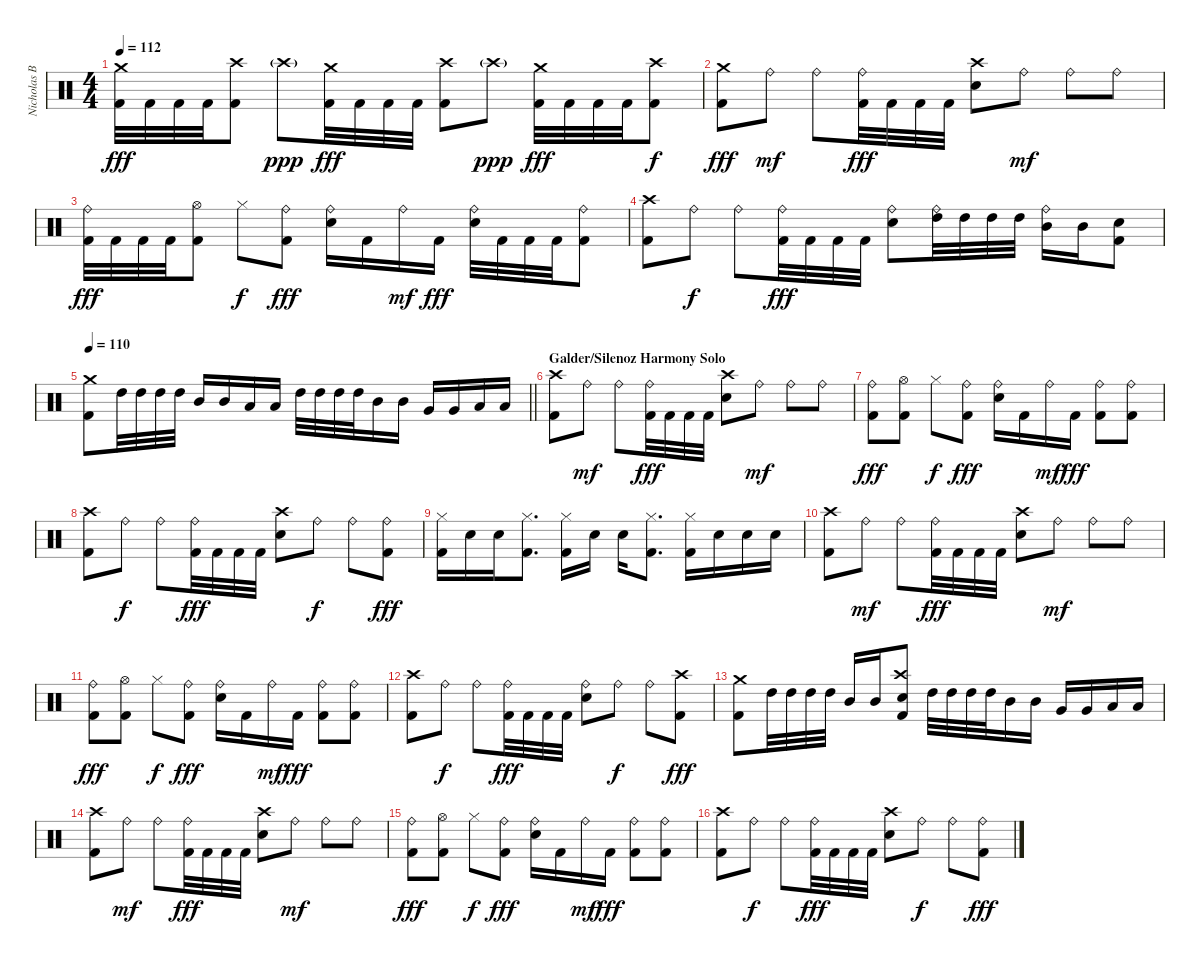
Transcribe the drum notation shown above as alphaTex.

\track ("Nicholas Barker" "Nicholas B") {instrument percussion}
\staff {score}
\articulation defaults
\ts (4 4)
\tempo 112
\clef neutral
\ks c
("Crash medium (hit)" "Kick (hit) 2").32{dy fff} "Kick (hit) 2".32 "Kick (hit) 2".32 "Kick (hit) 2".32 ("Crash high (hit)" "Kick (hit) 2").8 "Crash high (hit)"{g}.8{dy ppp} ("Crash medium (hit)" "Kick (hit) 2").32{dy fff} "Kick (hit) 2".32 "Kick (hit) 2".32 "Kick (hit) 2".32 ("Crash high (hit)" "Kick (hit) 2").8 "Crash high (hit)"{g}.8{dy ppp} ("Crash medium (hit)" "Kick (hit) 2").32{dy fff} "Kick (hit) 2".32 "Kick (hit) 2".32 "Kick (hit) 2".32 ("Crash high (hit)" "Kick (hit) 2").8{dy f} |
("Crash medium (hit)" "Kick (hit) 2").8{dy fff} "Ride (bell)".8{dy mf} "Ride (bell)".8 ("Ride (bell)" "Kick (hit) 2").32{dy fff} "Kick (hit) 2".32 "Kick (hit) 2".32 "Kick (hit) 2".32 ("Crash high (hit)" "Snare (hit) 2").8 "Ride (bell)".8{dy mf} "Ride (bell)".8 "Ride (bell)".8 |
("Ride (bell)" "Kick (hit) 2").32{dy fff} "Kick (hit) 2".32 "Kick (hit) 2".32 "Kick (hit) 2".32 ("Hi-Hat (open)" "Kick (hit) 2").8 "Hi-Hat (closed)".8{dy f} ("Ride (bell)" "Kick (hit) 2").8{dy fff} ("Ride (bell)" "Snare (hit) 2").16 "Kick (hit) 2".16 "Ride (bell)".16{dy mf} "Kick (hit) 2".16{dy fff} ("Ride (bell)" "Snare (hit) 2").32 "Kick (hit) 2".32 "Kick (hit) 2".32 "Kick (hit) 2".32 ("Ride (bell)" "Kick (hit) 2").8 |
("Crash high (hit)" "Kick (hit) 2").8 "Ride (bell)".8{dy f} "Ride (bell)".8 ("Ride (bell)" "Kick (hit) 2").32{dy fff} "Kick (hit) 2".32 "Kick (hit) 2".32 "Kick (hit) 2".32 ("Ride (bell)" "Snare (hit) 2").8 ("Ride (bell)" "High Tom (hit)").32 "High Tom (hit)".32 "High Tom (hit)".32 "High Tom (hit)".32 ("Ride (bell)" "Mid Tom (hit)").16 "Mid Tom (hit)".16 ("Snare (hit) 2" "Kick (hit) 2").8 |
\tempo 110
\barLineRight lightlight
("Crash medium (hit)" "Kick (hit) 2").8 "High Tom (hit)".32 "High Tom (hit)".32 "High Tom (hit)".32 "High Tom (hit)".32 "Mid Tom (hit)".16 "Mid Tom (hit)".16 "Low Tom (hit)".16 "Low Tom (hit)".16 "High Tom (hit)".32 "High Tom (hit)".32 "High Tom (hit)".32 "High Tom (hit)".32 "Mid Tom (hit)".16 "Mid Tom (hit)".16 "Very Low Tom (hit)".16 "Very Low Tom (hit)".16 "Low Floor Tom (hit)".16 "Low Floor Tom (hit)".16 |
\section ("" "Galder/Silenoz Harmony Solo")
("Crash high (hit)" "Kick (hit) 2").8 "Ride (bell)".8{dy mf} "Ride (bell)".8 ("Ride (bell)" "Kick (hit) 2").32{dy fff} "Kick (hit) 2".32 "Kick (hit) 2".32 "Kick (hit) 2".32 ("Crash high (hit)" "Snare (hit) 2").8 "Ride (bell)".8{dy mf} "Ride (bell)".8 "Ride (bell)".8 |
("Ride (bell)" "Kick (hit) 2").8{dy fff} ("Hi-Hat (open)" "Kick (hit) 2").8 "Hi-Hat (closed)".8{dy f} ("Ride (bell)" "Kick (hit) 2").8{dy fff} ("Ride (bell)" "Snare (hit) 2").16 "Kick (hit) 2".16 "Ride (bell)".16{dy mf} "Kick (hit) 2".16{dy fff} ("Ride (bell)" "Kick (hit) 2").8 ("Ride (bell)" "Kick (hit) 2").8 |
("Crash high (hit)" "Kick (hit) 2").8 "Ride (bell)".8{dy f} "Ride (bell)".8 ("Ride (bell)" "Kick (hit) 2").32{dy fff} "Kick (hit) 2".32 "Kick (hit) 2".32 "Kick (hit) 2".32 ("Crash high (hit)" "Snare (hit) 2").8 "Ride (bell)".8{dy f} "Ride (bell)".8 ("Ride (bell)" "Kick (hit) 2").8{dy fff} |
("Hi-Hat (closed)" "Kick (hit) 2").16 "Snare (hit) 2".16 "Snare (hit) 2".16 ("Hi-Hat (closed)" "Kick (hit) 2").8{d} ("Hi-Hat (closed)" "Kick (hit) 2").16 "Snare (hit) 2".16 "Snare (hit) 2".16 ("Hi-Hat (closed)" "Kick (hit) 2").8{d} ("Hi-Hat (closed)" "Kick (hit) 2").16 "Snare (hit) 2".16 "Snare (hit) 2".16 "Snare (hit) 2".16 |
("Crash high (hit)" "Kick (hit) 2").8 "Ride (bell)".8{dy mf} "Ride (bell)".8 ("Ride (bell)" "Kick (hit) 2").32{dy fff} "Kick (hit) 2".32 "Kick (hit) 2".32 "Kick (hit) 2".32 ("Crash high (hit)" "Snare (hit) 2").8 "Ride (bell)".8{dy mf} "Ride (bell)".8 "Ride (bell)".8 |
("Ride (bell)" "Kick (hit) 2").8{dy fff} ("Hi-Hat (open)" "Kick (hit) 2").8 "Hi-Hat (closed)".8{dy f} ("Ride (bell)" "Kick (hit) 2").8{dy fff} ("Ride (bell)" "Snare (hit) 2").16 "Kick (hit) 2".16 "Ride (bell)".16{dy mf} "Kick (hit) 2".16{dy fff} ("Ride (bell)" "Kick (hit) 2").8 ("Ride (bell)" "Kick (hit) 2").8 |
("Crash high (hit)" "Kick (hit) 2").8 "Ride (bell)".8{dy f} "Ride (bell)".8 ("Ride (bell)" "Kick (hit) 2").32{dy fff} "Kick (hit) 2".32 "Kick (hit) 2".32 "Kick (hit) 2".32 ("Ride (bell)" "Snare (hit) 2").8 "Ride (bell)".8{dy f} "Ride (bell)".8 ("Crash high (hit)" "Kick (hit) 2").8{dy fff} |
("Crash medium (hit)" "Kick (hit) 2").8 "High Tom (hit)".32 "High Tom (hit)".32 "High Tom (hit)".32 "High Tom (hit)".32 "Mid Tom (hit)".16 "Mid Tom (hit)".16 ("Crash high (hit)" "Snare (hit) 2" "Kick (hit) 2").8 "High Tom (hit)".32 "High Tom (hit)".32 "High Tom (hit)".32 "High Tom (hit)".32 "Mid Tom (hit)".16 "Mid Tom (hit)".16 "Very Low Tom (hit)".16 "Very Low Tom (hit)".16 "Low Floor Tom (hit)".16 "Low Floor Tom (hit)".16 |
("Crash high (hit)" "Kick (hit) 2").8 "Ride (bell)".8{dy mf} "Ride (bell)".8 ("Ride (bell)" "Kick (hit) 2").32{dy fff} "Kick (hit) 2".32 "Kick (hit) 2".32 "Kick (hit) 2".32 ("Crash high (hit)" "Snare (hit) 2").8 "Ride (bell)".8{dy mf} "Ride (bell)".8 "Ride (bell)".8 |
("Ride (bell)" "Kick (hit) 2").8{dy fff} ("Hi-Hat (open)" "Kick (hit) 2").8 "Hi-Hat (closed)".8{dy f} ("Ride (bell)" "Kick (hit) 2").8{dy fff} ("Ride (bell)" "Snare (hit) 2").16 "Kick (hit) 2".16 "Ride (bell)".16{dy mf} "Kick (hit) 2".16{dy fff} ("Ride (bell)" "Kick (hit) 2").8 ("Ride (bell)" "Kick (hit) 2").8 |
("Crash high (hit)" "Kick (hit) 2").8 "Ride (bell)".8{dy f} "Ride (bell)".8 ("Ride (bell)" "Kick (hit) 2").32{dy fff} "Kick (hit) 2".32 "Kick (hit) 2".32 "Kick (hit) 2".32 ("Crash high (hit)" "Snare (hit) 2").8 "Ride (bell)".8{dy f} "Ride (bell)".8 ("Ride (bell)" "Kick (hit) 2").8{dy fff}
